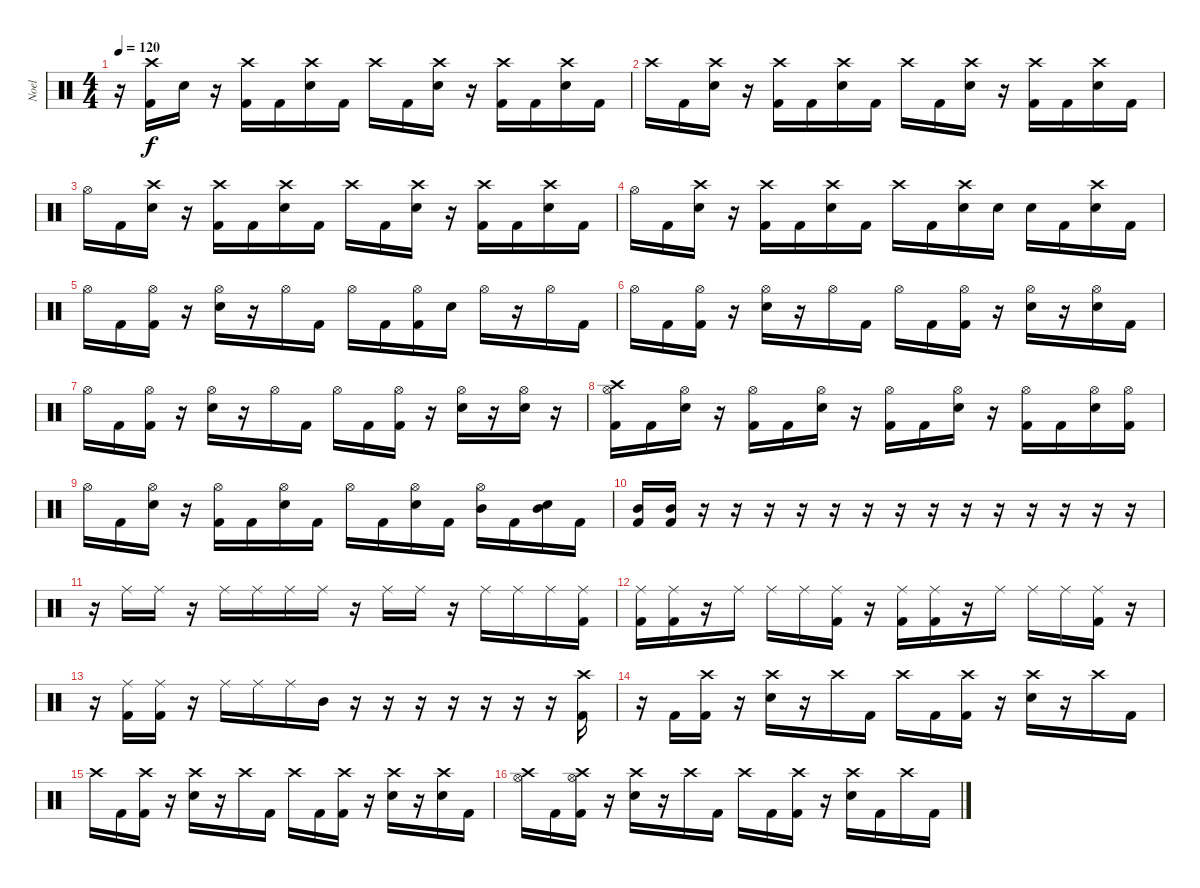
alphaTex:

\track ("Noel" "Noel") {instrument percussion}
\staff {score}
\articulation defaults
\ts (4 4)
\tempo 120
\clef neutral
\ks c
r.16{dy f} ("Crash high (hit)" "Kick (hit) 2").16 "Snare (hit) 2".16 r.16 ("Crash high (hit)" "Kick (hit) 2").16 "Kick (hit) 2".16 ("Crash high (hit)" "Snare (hit) 2").16 "Kick (hit) 2".16 "Crash high (hit)".16 "Kick (hit) 2".16 ("Crash high (hit)" "Snare (hit) 2").16 r.16 ("Crash high (hit)" "Kick (hit) 2").16 "Kick (hit) 2".16 ("Crash high (hit)" "Snare (hit) 2").16 "Kick (hit) 2".16 |
"Crash high (hit)".16 "Kick (hit) 2".16 ("Crash high (hit)" "Snare (hit) 2").16 r.16 ("Crash high (hit)" "Kick (hit) 2").16 "Kick (hit) 2".16 ("Crash high (hit)" "Snare (hit) 2").16 "Kick (hit) 2".16 "Crash high (hit)".16 "Kick (hit) 2".16 ("Crash high (hit)" "Snare (hit) 2").16 r.16 ("Crash high (hit)" "Kick (hit) 2").16 "Kick (hit) 2".16 ("Crash high (hit)" "Snare (hit) 2").16 "Kick (hit) 2".16 |
"Hi-Hat (open)".16 "Kick (hit) 2".16 ("Crash high (hit)" "Snare (hit) 2").16 r.16 ("Crash high (hit)" "Kick (hit) 2").16 "Kick (hit) 2".16 ("Crash high (hit)" "Snare (hit) 2").16 "Kick (hit) 2".16 "Crash high (hit)".16 "Kick (hit) 2".16 ("Crash high (hit)" "Snare (hit) 2").16 r.16 ("Crash high (hit)" "Kick (hit) 2").16 "Kick (hit) 2".16 ("Crash high (hit)" "Snare (hit) 2").16 "Kick (hit) 2".16 |
"Hi-Hat (open)".16 "Kick (hit) 2".16 ("Crash high (hit)" "Snare (hit) 2").16 r.16 ("Crash high (hit)" "Kick (hit) 2").16 "Kick (hit) 2".16 ("Crash high (hit)" "Snare (hit) 2").16 "Kick (hit) 2".16 "Crash high (hit)".16 "Kick (hit) 2".16 ("Crash high (hit)" "Snare (hit) 2").16 "Snare (hit) 2".16 "Snare (hit) 2".16 "Kick (hit) 2".16 ("Crash high (hit)" "Snare (hit) 2").16 "Kick (hit) 2".16 |
"Hi-Hat (open)".16 "Kick (hit) 2".16 ("Hi-Hat (open)" "Kick (hit) 2").16 r.16 ("Hi-Hat (open)" "Snare (hit) 2").16 r.16 "Hi-Hat (open)".16 "Kick (hit) 2".16 "Hi-Hat (open)".16 "Kick (hit) 2".16 ("Hi-Hat (open)" "Kick (hit) 2").16 "Snare (hit) 2".16 "Hi-Hat (open)".16 r.16 "Hi-Hat (open)".16 "Kick (hit) 2".16 |
"Hi-Hat (open)".16 "Kick (hit) 2".16 ("Hi-Hat (open)" "Kick (hit) 2").16 r.16 ("Hi-Hat (open)" "Snare (hit) 2").16 r.16 "Hi-Hat (open)".16 "Kick (hit) 2".16 "Hi-Hat (open)".16 "Kick (hit) 2".16 ("Hi-Hat (open)" "Kick (hit) 2").16 r.16 ("Hi-Hat (open)" "Snare (hit) 2").16 r.16 ("Hi-Hat (open)" "Snare (hit) 2").16 "Kick (hit) 2".16 |
"Hi-Hat (open)".16 "Kick (hit) 2".16 ("Hi-Hat (open)" "Kick (hit) 2").16 r.16 ("Hi-Hat (open)" "Snare (hit) 2").16 r.16 "Hi-Hat (open)".16 "Kick (hit) 2".16 "Hi-Hat (open)".16 "Kick (hit) 2".16 ("Hi-Hat (open)" "Kick (hit) 2").16 r.16 ("Hi-Hat (open)" "Snare (hit) 2").16 r.16 ("Hi-Hat (open)" "Snare (hit) 2").16 r.16 |
("Crash high (hit)" "Hi-Hat (open)" "Kick (hit) 2").16 "Kick (hit) 2".16 ("Hi-Hat (open)" "Snare (hit) 2").16 r.16 ("Hi-Hat (open)" "Kick (hit) 2").16 "Kick (hit) 2".16 ("Hi-Hat (open)" "Snare (hit) 2").16 r.16 ("Hi-Hat (open)" "Kick (hit) 2").16 "Kick (hit) 2".16 ("Hi-Hat (open)" "Snare (hit) 2").16 r.16 ("Hi-Hat (open)" "Kick (hit) 2").16 "Kick (hit) 2".16 ("Hi-Hat (open)" "Snare (hit) 2").16 ("Hi-Hat (open)" "Kick (hit) 2").16 |
"Hi-Hat (open)".16 "Kick (hit) 2".16 ("Hi-Hat (open)" "Snare (hit) 2").16 r.16 ("Hi-Hat (open)" "Kick (hit) 2").16 "Kick (hit) 2".16 ("Hi-Hat (open)" "Snare (hit) 2").16 "Kick (hit) 2".16 "Hi-Hat (open)".16 "Kick (hit) 2".16 ("Hi-Hat (open)" "Snare (hit) 2").16 "Kick (hit) 2".16 ("Hi-Hat (open)" "Mid Tom (hit)").16 "Kick (hit) 2".16 ("Snare (hit) 2" "Mid Tom (hit)").16 "Kick (hit) 2".16 |
("Mid Tom (hit)" "Kick (hit) 2").16 ("Mid Tom (hit)" "Kick (hit) 2").16 r.16 r.16 r.16 r.16 r.16 r.16 r.16 r.16 r.16 r.16 r.16 r.16 r.16 r.16 |
r.16 "Ride (middle)".16 "Ride (middle)".16 r.16 "Ride (middle)".16 "Ride (middle)".16 "Ride (middle)".16 "Ride (middle)".16 r.16 "Ride (middle)".16 "Ride (middle)".16 r.16 "Ride (middle)".16 "Ride (middle)".16 "Ride (middle)".16 ("Ride (middle)" "Kick (hit) 2").16 |
("Ride (middle)" "Kick (hit) 2").16 ("Ride (middle)" "Kick (hit) 2").16 r.16 "Ride (middle)".16 "Ride (middle)".16 "Ride (middle)".16 ("Ride (middle)" "Kick (hit) 2").16 r.16 ("Ride (middle)" "Kick (hit) 2").16 ("Ride (middle)" "Kick (hit) 2").16 r.16 "Ride (middle)".16 "Ride (middle)".16 "Ride (middle)".16 ("Ride (middle)" "Kick (hit) 2").16 r.16 |
r.16 ("Ride (middle)" "Kick (hit) 2").16 ("Ride (middle)" "Kick (hit) 2").16 r.16 "Ride (middle)".16 "Ride (middle)".16 "Ride (middle)".16 "Mid Tom (hit)".16 r.16 r.16 r.16 r.16 r.16 r.16 r.16 ("Crash high (hit)" "Kick (hit) 2").16 |
r.16 "Kick (hit) 2".16 ("Crash high (hit)" "Kick (hit) 2").16 r.16 ("Crash high (hit)" "Snare (hit) 2").16 r.16 "Crash high (hit)".16 "Kick (hit) 2".16 "Crash high (hit)".16 "Kick (hit) 2".16 ("Crash high (hit)" "Kick (hit) 2").16 r.16 ("Crash high (hit)" "Snare (hit) 2").16 r.16 "Crash high (hit)".16 "Kick (hit) 2".16 |
"Crash high (hit)".16 "Kick (hit) 2".16 ("Crash high (hit)" "Kick (hit) 2").16 r.16 ("Crash high (hit)" "Snare (hit) 2").16 r.16 "Crash high (hit)".16 "Kick (hit) 2".16 "Crash high (hit)".16 "Kick (hit) 2".16 ("Crash high (hit)" "Kick (hit) 2").16 r.16 ("Crash high (hit)" "Snare (hit) 2").16 r.16 ("Crash high (hit)" "Snare (hit) 2").16 "Kick (hit) 2".16 |
("Crash high (hit)" "Hi-Hat (open)").16 "Kick (hit) 2".16 ("Crash high (hit)" "Hi-Hat (open)" "Kick (hit) 2").16 r.16 ("Crash high (hit)" "Snare (hit) 2").16 r.16 "Crash high (hit)".16 "Kick (hit) 2".16 "Crash high (hit)".16 "Kick (hit) 2".16 ("Crash high (hit)" "Kick (hit) 2").16 r.16 ("Crash high (hit)" "Snare (hit) 2").16 "Kick (hit) 2".16 "Crash high (hit)".16 "Kick (hit) 2".16
